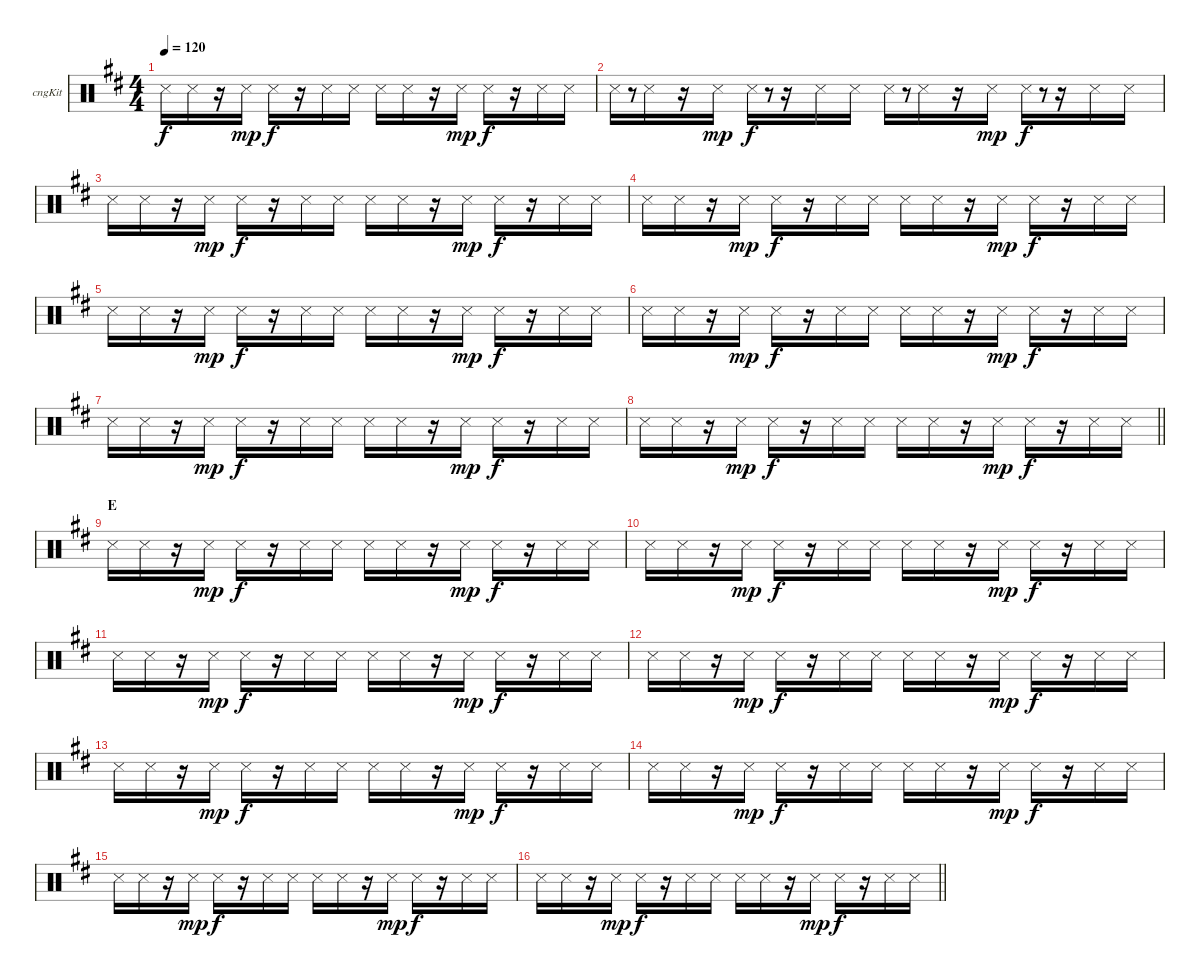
\bracketExtendMode groupsimilarinstruments
\firstSystemTrackNameOrientation horizontal
\otherSystemsTrackNameOrientation horizontal
\track ("Congas" "cngKit") {instrument percussion}
\staff {score}
\articulation defaults
\ts (4 4)
\tempo 120
\clef neutral
\ks d "Snare (side stick) 3".16{dy f} "Snare (side stick) 3".16
r.16 "Snare (side stick) 3".16{dy mp} "Snare (side stick) 3".16{dy f} r.16 "Snare (side stick) 3".16 "Snare (side stick) 3".16 "Snare (side stick) 3".16 "Snare (side stick) 3".16 r.16 "Snare (side stick) 3".16{dy mp} "Snare (side stick) 3".16{dy f} r.16 "Snare (side stick) 3".16 "Snare (side stick) 3".16 |
"Snare (side stick) 3".16 r.8{gr} "Snare (side stick) 3".16 r.16 "Snare (side stick) 3".16{dy mp} "Snare (side stick) 3".16{dy f} r.8{gr} r.16 "Snare (side stick) 3".16 "Snare (side stick) 3".16 "Snare (side stick) 3".16 r.8{gr} "Snare (side stick) 3".16 r.16 "Snare (side stick) 3".16{dy mp} "Snare (side stick) 3".16{dy f} r.8{gr} r.16 "Snare (side stick) 3".16 "Snare (side stick) 3".16 |
"Snare (side stick) 3".16 "Snare (side stick) 3".16 r.16 "Snare (side stick) 3".16{dy mp} "Snare (side stick) 3".16{dy f} r.16 "Snare (side stick) 3".16 "Snare (side stick) 3".16 "Snare (side stick) 3".16 "Snare (side stick) 3".16 r.16 "Snare (side stick) 3".16{dy mp} "Snare (side stick) 3".16{dy f} r.16 "Snare (side stick) 3".16 "Snare (side stick) 3".16 |
"Snare (side stick) 3".16 "Snare (side stick) 3".16 r.16 "Snare (side stick) 3".16{dy mp} "Snare (side stick) 3".16{dy f} r.16 "Snare (side stick) 3".16 "Snare (side stick) 3".16 "Snare (side stick) 3".16 "Snare (side stick) 3".16 r.16 "Snare (side stick) 3".16{dy mp} "Snare (side stick) 3".16{dy f} r.16 "Snare (side stick) 3".16 "Snare (side stick) 3".16 |
"Snare (side stick) 3".16 "Snare (side stick) 3".16 r.16 "Snare (side stick) 3".16{dy mp} "Snare (side stick) 3".16{dy f} r.16 "Snare (side stick) 3".16 "Snare (side stick) 3".16 "Snare (side stick) 3".16 "Snare (side stick) 3".16 r.16 "Snare (side stick) 3".16{dy mp} "Snare (side stick) 3".16{dy f} r.16 "Snare (side stick) 3".16 "Snare (side stick) 3".16 |
"Snare (side stick) 3".16 "Snare (side stick) 3".16 r.16 "Snare (side stick) 3".16{dy mp} "Snare (side stick) 3".16{dy f} r.16 "Snare (side stick) 3".16 "Snare (side stick) 3".16 "Snare (side stick) 3".16 "Snare (side stick) 3".16 r.16 "Snare (side stick) 3".16{dy mp} "Snare (side stick) 3".16{dy f} r.16 "Snare (side stick) 3".16 "Snare (side stick) 3".16 |
"Snare (side stick) 3".16 "Snare (side stick) 3".16 r.16 "Snare (side stick) 3".16{dy mp} "Snare (side stick) 3".16{dy f} r.16 "Snare (side stick) 3".16 "Snare (side stick) 3".16 "Snare (side stick) 3".16 "Snare (side stick) 3".16 r.16 "Snare (side stick) 3".16{dy mp} "Snare (side stick) 3".16{dy f} r.16 "Snare (side stick) 3".16 "Snare (side stick) 3".16 |
\barLineRight lightlight "Snare (side stick) 3".16 "Snare (side stick) 3".16
r.16 "Snare (side stick) 3".16{dy mp} "Snare (side stick) 3".16{dy f} r.16 "Snare (side stick) 3".16 "Snare (side stick) 3".16 "Snare (side stick) 3".16 "Snare (side stick) 3".16 r.16 "Snare (side stick) 3".16{dy mp} "Snare (side stick) 3".16{dy f} r.16 "Snare (side stick) 3".16 "Snare (side stick) 3".16 |
\section ("" "E")
"Snare (side stick) 3".16 "Snare (side stick) 3".16 r.16 "Snare (side stick) 3".16{dy mp} "Snare (side stick) 3".16{dy f} r.16 "Snare (side stick) 3".16 "Snare (side stick) 3".16 "Snare (side stick) 3".16 "Snare (side stick) 3".16 r.16 "Snare (side stick) 3".16{dy mp} "Snare (side stick) 3".16{dy f} r.16 "Snare (side stick) 3".16 "Snare (side stick) 3".16 |
"Snare (side stick) 3".16 "Snare (side stick) 3".16 r.16 "Snare (side stick) 3".16{dy mp} "Snare (side stick) 3".16{dy f} r.16 "Snare (side stick) 3".16 "Snare (side stick) 3".16 "Snare (side stick) 3".16 "Snare (side stick) 3".16 r.16 "Snare (side stick) 3".16{dy mp} "Snare (side stick) 3".16{dy f} r.16 "Snare (side stick) 3".16 "Snare (side stick) 3".16 |
"Snare (side stick) 3".16 "Snare (side stick) 3".16 r.16 "Snare (side stick) 3".16{dy mp} "Snare (side stick) 3".16{dy f} r.16 "Snare (side stick) 3".16 "Snare (side stick) 3".16 "Snare (side stick) 3".16 "Snare (side stick) 3".16 r.16 "Snare (side stick) 3".16{dy mp} "Snare (side stick) 3".16{dy f} r.16 "Snare (side stick) 3".16 "Snare (side stick) 3".16 |
"Snare (side stick) 3".16 "Snare (side stick) 3".16 r.16 "Snare (side stick) 3".16{dy mp} "Snare (side stick) 3".16{dy f} r.16 "Snare (side stick) 3".16 "Snare (side stick) 3".16 "Snare (side stick) 3".16 "Snare (side stick) 3".16 r.16 "Snare (side stick) 3".16{dy mp} "Snare (side stick) 3".16{dy f} r.16 "Snare (side stick) 3".16 "Snare (side stick) 3".16 |
"Snare (side stick) 3".16 "Snare (side stick) 3".16 r.16 "Snare (side stick) 3".16{dy mp} "Snare (side stick) 3".16{dy f} r.16 "Snare (side stick) 3".16 "Snare (side stick) 3".16 "Snare (side stick) 3".16 "Snare (side stick) 3".16 r.16 "Snare (side stick) 3".16{dy mp} "Snare (side stick) 3".16{dy f} r.16 "Snare (side stick) 3".16 "Snare (side stick) 3".16 |
"Snare (side stick) 3".16 "Snare (side stick) 3".16 r.16 "Snare (side stick) 3".16{dy mp} "Snare (side stick) 3".16{dy f} r.16 "Snare (side stick) 3".16 "Snare (side stick) 3".16 "Snare (side stick) 3".16 "Snare (side stick) 3".16 r.16 "Snare (side stick) 3".16{dy mp} "Snare (side stick) 3".16{dy f} r.16 "Snare (side stick) 3".16 "Snare (side stick) 3".16 |
"Snare (side stick) 3".16 "Snare (side stick) 3".16 r.16 "Snare (side stick) 3".16{dy mp} "Snare (side stick) 3".16{dy f} r.16 "Snare (side stick) 3".16 "Snare (side stick) 3".16 "Snare (side stick) 3".16 "Snare (side stick) 3".16 r.16 "Snare (side stick) 3".16{dy mp} "Snare (side stick) 3".16{dy f} r.16 "Snare (side stick) 3".16 "Snare (side stick) 3".16 |
\barLineRight lightlight "Snare (side stick) 3".16 "Snare (side stick) 3".16
r.16 "Snare (side stick) 3".16{dy mp} "Snare (side stick) 3".16{dy f} r.16 "Snare (side stick) 3".16 "Snare (side stick) 3".16 "Snare (side stick) 3".16 "Snare (side stick) 3".16 r.16 "Snare (side stick) 3".16{dy mp} "Snare (side stick) 3".16{dy f} r.16 "Snare (side stick) 3".16 "Snare (side stick) 3".16
